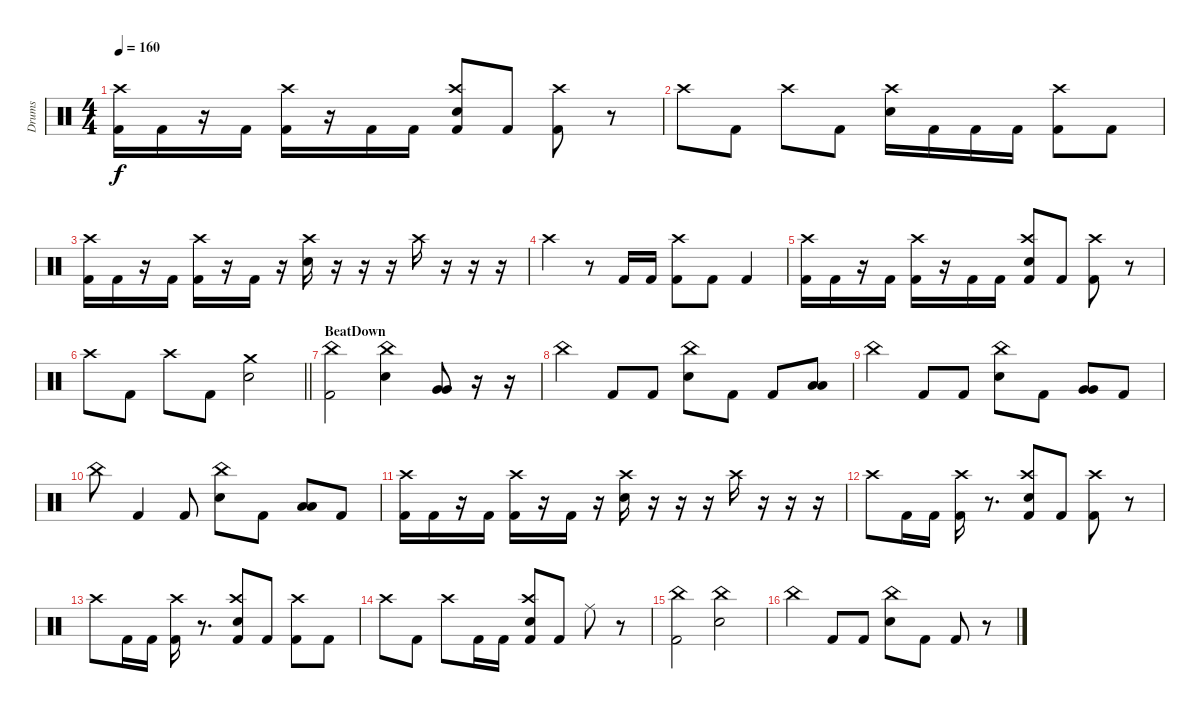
\track ("Drums" "Drums") {instrument percussion}
\staff {score}
\articulation defaults
\ts (4 4)
\tempo 160
\clef neutral
\ks c
("Kick (hit) 2" "Crash high (hit)").16{dy f} "Kick (hit) 2".16 r.16 "Kick (hit) 2".16 ("Kick (hit) 2" "Crash high (hit)").16 r.16 "Kick (hit) 2".16 "Kick (hit) 2".16 ("Kick (hit) 2" "Crash high (hit)" "Electric Snare (hit)").8 "Kick (hit) 2".8 ("Kick (hit) 2" "Crash high (hit)").8 r.8 |
"Crash high (hit)".8 "Kick (hit) 2".8 "Crash high (hit)".8 "Kick (hit) 2".8 ("Electric Snare (hit)" "Crash high (hit)").16 "Kick (hit) 2".16 "Kick (hit) 2".16 "Kick (hit) 2".16 ("Kick (hit) 2" "Crash high (hit)").8 "Kick (hit) 2".8 |
("Kick (hit) 2" "Crash high (hit)").16 "Kick (hit) 2".16 r.16 "Kick (hit) 2".16 ("Kick (hit) 2" "Crash high (hit)").16 r.16 "Kick (hit) 2".16 r.16 ("Electric Snare (hit)" "Crash high (hit)").16 r.16 r.16 r.16 "Crash high (hit)".16 r.16 r.16 r.16 |
"Crash high (hit)".4 r.8 "Kick (hit) 2".16 "Kick (hit) 2".16 ("Crash high (hit)" "Kick (hit) 2").8 "Kick (hit) 2".8 "Kick (hit) 2".4 |
("Kick (hit) 2" "Crash high (hit)").16 "Kick (hit) 2".16 r.16 "Kick (hit) 2".16 ("Kick (hit) 2" "Crash high (hit)").16 r.16 "Kick (hit) 2".16 "Kick (hit) 2".16 ("Kick (hit) 2" "Crash high (hit)" "Electric Snare (hit)").8 "Kick (hit) 2".8 ("Kick (hit) 2" "Crash high (hit)").8 r.8 |
\barLineRight lightlight "Crash high (hit)".8 "Kick (hit) 2".8 "Crash high (hit)".8 "Kick (hit) 2".8
("Electric Snare (hit)" "Crash medium (hit)").2 |
\section ("" "BeatDown")
("China (hit)" "Kick (hit) 2").2 ("China (hit)" "Electric Snare (hit)").4 ("Very Low Tom (hit)" "Very Low Tom (hit)").8 r.16 r.16 |
"China (hit)".4 "Kick (hit) 2".8 "Kick (hit) 2".8 ("China (hit)" "Electric Snare (hit)").8 "Kick (hit) 2".8 "Kick (hit) 2".8 ("Low Floor Tom (hit)" "Low Floor Tom (hit)").8 |
"China (hit)".4 "Kick (hit) 2".8 "Kick (hit) 2".8 ("China (hit)" "Electric Snare (hit)").8 "Kick (hit) 2".8 ("Very Low Tom (hit)" "Very Low Tom (hit)").8 "Kick (hit) 2".8 |
"China (hit)".8 "Kick (hit) 2".4 "Kick (hit) 2".8 ("Electric Snare (hit)" "China (hit)").8 "Kick (hit) 2".8 ("Low Floor Tom (hit)" "Low Floor Tom (hit)").8 "Kick (hit) 2".8 |
("Kick (hit) 2" "Crash high (hit)").16 "Kick (hit) 2".16 r.16 "Kick (hit) 2".16 ("Kick (hit) 2" "Crash high (hit)").16 r.16 "Kick (hit) 2".16 r.16 ("Electric Snare (hit)" "Crash high (hit)").16 r.16 r.16 r.16 "Crash high (hit)".16 r.16 r.16 r.16 |
"Crash high (hit)".8 "Kick (hit) 2".16 "Kick (hit) 2".16 ("Crash high (hit)" "Kick (hit) 2").16 r.8{d} ("Electric Snare (hit)" "Kick (hit) 2" "Crash high (hit)").8 "Kick (hit) 2".8 ("Crash high (hit)" "Kick (hit) 2").8 r.8 |
"Crash high (hit)".8 "Kick (hit) 2".16 "Kick (hit) 2".16 ("Crash high (hit)" "Kick (hit) 2").16 r.8{d} ("Electric Snare (hit)" "Kick (hit) 2" "Crash high (hit)").8 "Kick (hit) 2".8 ("Crash high (hit)" "Kick (hit) 2").8 "Kick (hit) 2".8 |
"Crash high (hit)".8 "Kick (hit) 2".8 "Crash high (hit)".8 "Kick (hit) 2".16 "Kick (hit) 2".16 ("Kick (hit) 2" "Crash high (hit)" "Electric Snare (hit)").8 "Kick (hit) 2".8 "Ride (middle)".8 r.8 |
("Kick (hit) 2" "China (hit)").2 ("Electric Snare (hit)" "China (hit)").2 |
"China (hit)".4 "Kick (hit) 2".8 "Kick (hit) 2".8 ("China (hit)" "Electric Snare (hit)").8 "Kick (hit) 2".8 "Kick (hit) 2".8 r.8
